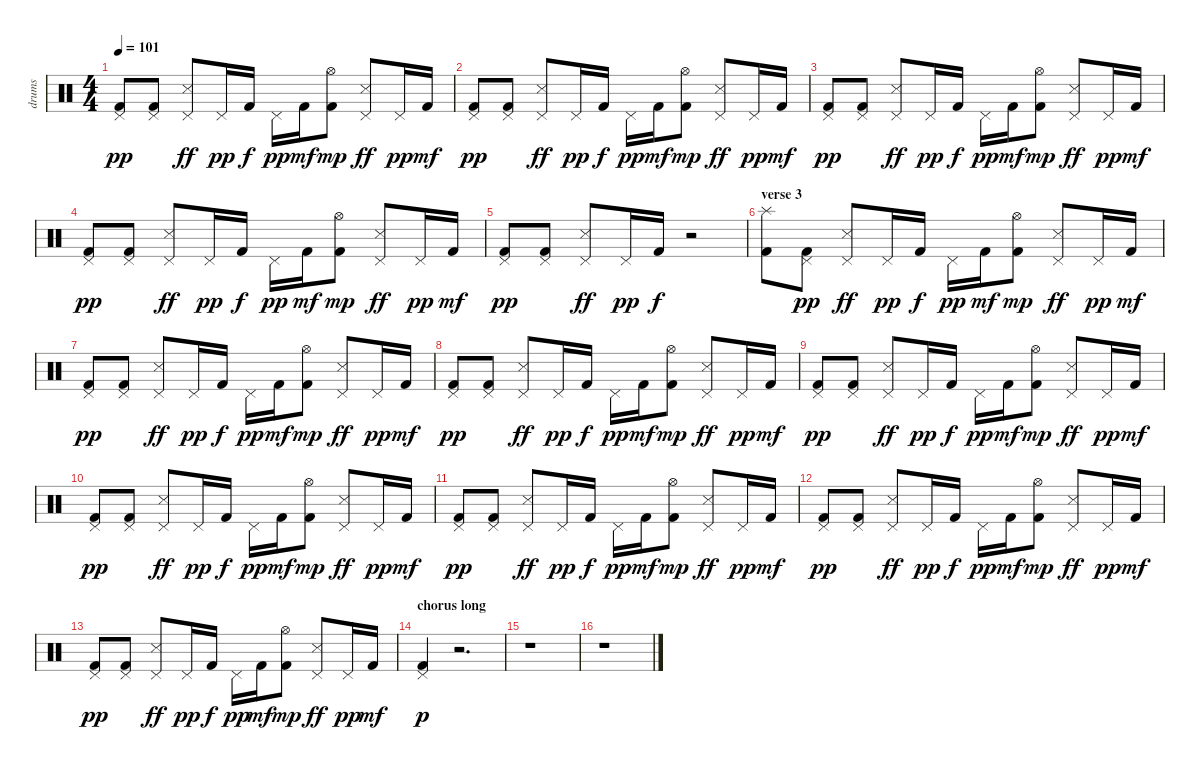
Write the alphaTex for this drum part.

\track ("drums" "drums") {instrument percussion}
\staff {score}
\articulation defaults
\ts (4 4)
\tempo 101
\clef neutral
\ks c
("Pedal Hi-Hat (hit)" "Kick (hit) 2").8{dy pp} ("Pedal Hi-Hat (hit)" "Kick (hit) 2").8 ("Pedal Hi-Hat (hit)" "Snare (side stick) 3").8{dy ff} "Pedal Hi-Hat (hit)".16{dy pp} "Kick (hit) 2".16{dy f} "Pedal Hi-Hat (hit)".16{dy pp} "Kick (hit) 2".16{dy mf} ("Hi-Hat (open)" "Kick (hit) 2").8{dy mp} ("Pedal Hi-Hat (hit)" "Snare (side stick) 3").8{dy ff} "Pedal Hi-Hat (hit)".16{dy pp} "Kick (hit) 2".16{dy mf} |
("Pedal Hi-Hat (hit)" "Kick (hit) 2").8{dy pp} ("Pedal Hi-Hat (hit)" "Kick (hit) 2").8 ("Pedal Hi-Hat (hit)" "Snare (side stick) 3").8{dy ff} "Pedal Hi-Hat (hit)".16{dy pp} "Kick (hit) 2".16{dy f} "Pedal Hi-Hat (hit)".16{dy pp} "Kick (hit) 2".16{dy mf} ("Hi-Hat (open)" "Kick (hit) 2").8{dy mp} ("Pedal Hi-Hat (hit)" "Snare (side stick) 3").8{dy ff} "Pedal Hi-Hat (hit)".16{dy pp} "Kick (hit) 2".16{dy mf} |
("Pedal Hi-Hat (hit)" "Kick (hit) 2").8{dy pp} ("Pedal Hi-Hat (hit)" "Kick (hit) 2").8 ("Pedal Hi-Hat (hit)" "Snare (side stick) 3").8{dy ff} "Pedal Hi-Hat (hit)".16{dy pp} "Kick (hit) 2".16{dy f} "Pedal Hi-Hat (hit)".16{dy pp} "Kick (hit) 2".16{dy mf} ("Hi-Hat (open)" "Kick (hit) 2").8{dy mp} ("Pedal Hi-Hat (hit)" "Snare (side stick) 3").8{dy ff} "Pedal Hi-Hat (hit)".16{dy pp} "Kick (hit) 2".16{dy mf} |
("Pedal Hi-Hat (hit)" "Kick (hit) 2").8{dy pp} ("Pedal Hi-Hat (hit)" "Kick (hit) 2").8 ("Pedal Hi-Hat (hit)" "Snare (side stick) 3").8{dy ff} "Pedal Hi-Hat (hit)".16{dy pp} "Kick (hit) 2".16{dy f} "Pedal Hi-Hat (hit)".16{dy pp} "Kick (hit) 2".16{dy mf} ("Hi-Hat (open)" "Kick (hit) 2").8{dy mp} ("Pedal Hi-Hat (hit)" "Snare (side stick) 3").8{dy ff} "Pedal Hi-Hat (hit)".16{dy pp} "Kick (hit) 2".16{dy mf} |
("Pedal Hi-Hat (hit)" "Kick (hit) 2").8{dy pp} ("Pedal Hi-Hat (hit)" "Kick (hit) 2").8 ("Pedal Hi-Hat (hit)" "Snare (side stick) 3").8{dy ff} "Pedal Hi-Hat (hit)".16{dy pp} "Kick (hit) 2".16{dy f} r.2 |
\section ("" "verse 3")
("Splash (hit)" "Kick (hit) 2").8 ("Pedal Hi-Hat (hit)" "Kick (hit) 2").8{dy pp} ("Pedal Hi-Hat (hit)" "Snare (side stick) 3").8{dy ff} "Pedal Hi-Hat (hit)".16{dy pp} "Kick (hit) 2".16{dy f} "Pedal Hi-Hat (hit)".16{dy pp} "Kick (hit) 2".16{dy mf} ("Hi-Hat (open)" "Kick (hit) 2").8{dy mp} ("Pedal Hi-Hat (hit)" "Snare (side stick) 3").8{dy ff} "Pedal Hi-Hat (hit)".16{dy pp} "Kick (hit) 2".16{dy mf} |
("Pedal Hi-Hat (hit)" "Kick (hit) 2").8{dy pp} ("Pedal Hi-Hat (hit)" "Kick (hit) 2").8 ("Pedal Hi-Hat (hit)" "Snare (side stick) 3").8{dy ff} "Pedal Hi-Hat (hit)".16{dy pp} "Kick (hit) 2".16{dy f} "Pedal Hi-Hat (hit)".16{dy pp} "Kick (hit) 2".16{dy mf} ("Hi-Hat (open)" "Kick (hit) 2").8{dy mp} ("Pedal Hi-Hat (hit)" "Snare (side stick) 3").8{dy ff} "Pedal Hi-Hat (hit)".16{dy pp} "Kick (hit) 2".16{dy mf} |
("Pedal Hi-Hat (hit)" "Kick (hit) 2").8{dy pp} ("Pedal Hi-Hat (hit)" "Kick (hit) 2").8 ("Pedal Hi-Hat (hit)" "Snare (side stick) 3").8{dy ff} "Pedal Hi-Hat (hit)".16{dy pp} "Kick (hit) 2".16{dy f} "Pedal Hi-Hat (hit)".16{dy pp} "Kick (hit) 2".16{dy mf} ("Hi-Hat (open)" "Kick (hit) 2").8{dy mp} ("Pedal Hi-Hat (hit)" "Snare (side stick) 3").8{dy ff} "Pedal Hi-Hat (hit)".16{dy pp} "Kick (hit) 2".16{dy mf} |
("Pedal Hi-Hat (hit)" "Kick (hit) 2").8{dy pp} ("Pedal Hi-Hat (hit)" "Kick (hit) 2").8 ("Pedal Hi-Hat (hit)" "Snare (side stick) 3").8{dy ff} "Pedal Hi-Hat (hit)".16{dy pp} "Kick (hit) 2".16{dy f} "Pedal Hi-Hat (hit)".16{dy pp} "Kick (hit) 2".16{dy mf} ("Hi-Hat (open)" "Kick (hit) 2").8{dy mp} ("Pedal Hi-Hat (hit)" "Snare (side stick) 3").8{dy ff} "Pedal Hi-Hat (hit)".16{dy pp} "Kick (hit) 2".16{dy mf} |
("Pedal Hi-Hat (hit)" "Kick (hit) 2").8{dy pp} ("Pedal Hi-Hat (hit)" "Kick (hit) 2").8 ("Pedal Hi-Hat (hit)" "Snare (side stick) 3").8{dy ff} "Pedal Hi-Hat (hit)".16{dy pp} "Kick (hit) 2".16{dy f} "Pedal Hi-Hat (hit)".16{dy pp} "Kick (hit) 2".16{dy mf} ("Hi-Hat (open)" "Kick (hit) 2").8{dy mp} ("Pedal Hi-Hat (hit)" "Snare (side stick) 3").8{dy ff} "Pedal Hi-Hat (hit)".16{dy pp} "Kick (hit) 2".16{dy mf} |
("Pedal Hi-Hat (hit)" "Kick (hit) 2").8{dy pp} ("Pedal Hi-Hat (hit)" "Kick (hit) 2").8 ("Pedal Hi-Hat (hit)" "Snare (side stick) 3").8{dy ff} "Pedal Hi-Hat (hit)".16{dy pp} "Kick (hit) 2".16{dy f} "Pedal Hi-Hat (hit)".16{dy pp} "Kick (hit) 2".16{dy mf} ("Hi-Hat (open)" "Kick (hit) 2").8{dy mp} ("Pedal Hi-Hat (hit)" "Snare (side stick) 3").8{dy ff} "Pedal Hi-Hat (hit)".16{dy pp} "Kick (hit) 2".16{dy mf} |
("Pedal Hi-Hat (hit)" "Kick (hit) 2").8{dy pp} ("Pedal Hi-Hat (hit)" "Kick (hit) 2").8 ("Pedal Hi-Hat (hit)" "Snare (side stick) 3").8{dy ff} "Pedal Hi-Hat (hit)".16{dy pp} "Kick (hit) 2".16{dy f} "Pedal Hi-Hat (hit)".16{dy pp} "Kick (hit) 2".16{dy mf} ("Hi-Hat (open)" "Kick (hit) 2").8{dy mp} ("Pedal Hi-Hat (hit)" "Snare (side stick) 3").8{dy ff} "Pedal Hi-Hat (hit)".16{dy pp} "Kick (hit) 2".16{dy mf} |
("Pedal Hi-Hat (hit)" "Kick (hit) 2").8{dy pp} ("Pedal Hi-Hat (hit)" "Kick (hit) 2").8 ("Pedal Hi-Hat (hit)" "Snare (side stick) 3").8{dy ff} "Pedal Hi-Hat (hit)".16{dy pp} "Kick (hit) 2".16{dy f} "Pedal Hi-Hat (hit)".16{dy pp} "Kick (hit) 2".16{dy mf} ("Hi-Hat (open)" "Kick (hit) 2").8{dy mp} ("Pedal Hi-Hat (hit)" "Snare (side stick) 3").8{dy ff} "Pedal Hi-Hat (hit)".16{dy pp} "Kick (hit) 2".16{dy mf} |
\section ("" "chorus long")
("Pedal Hi-Hat (hit)" "Kick (hit) 2").4{dy p} r.2{d} |
r.1 |
r.1
